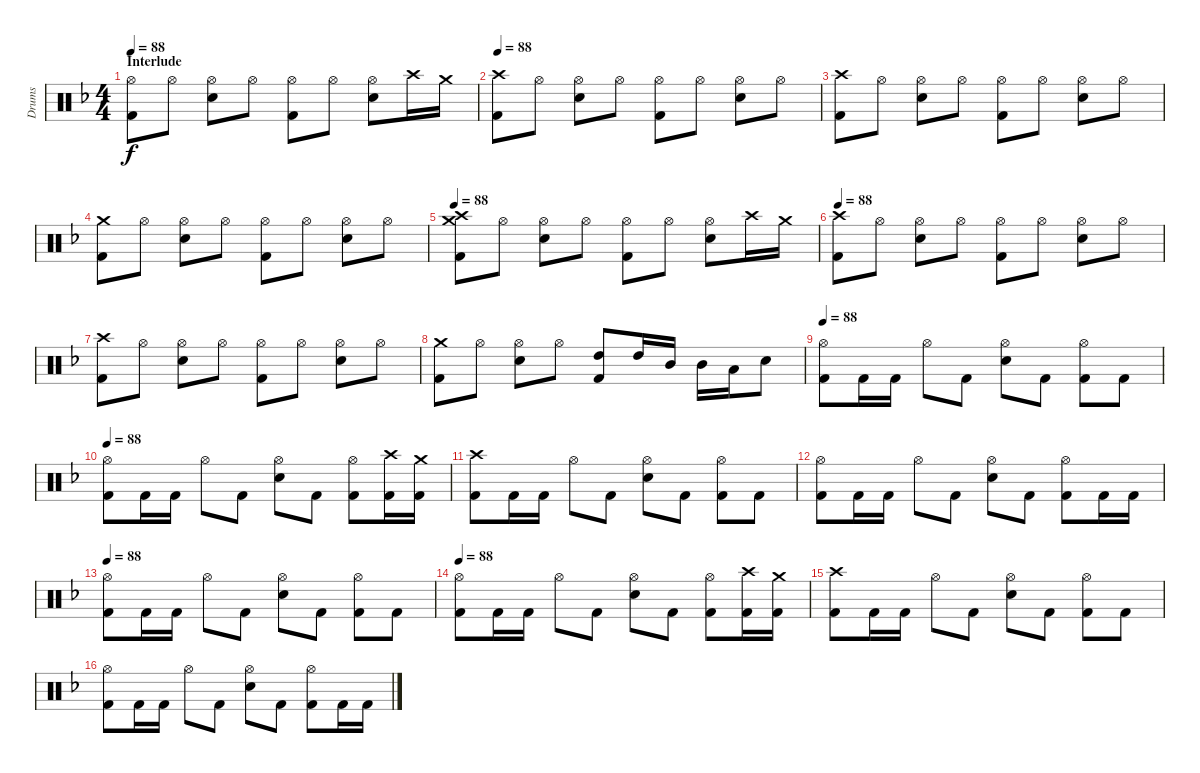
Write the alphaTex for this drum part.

\track ("Drums" "Drums") {instrument percussion}
\staff {score}
\articulation defaults
\ts (4 4)
\section ("" "Interlude")
\tempo 88
\clef neutral
\ks f
("Hi-Hat (open)" "Kick (hit) 2").8{dy f} "Hi-Hat (open)".8 ("Hi-Hat (open)" "Snare (hit) 2").8 "Hi-Hat (open)".8 ("Hi-Hat (open)" "Kick (hit) 2").8 "Hi-Hat (open)".8 ("Hi-Hat (open)" "Snare (hit) 2").8 "Crash high (hit)".16 "Crash medium (hit)".16 |
\tempo 88
("Crash high (hit)" "Kick (hit) 2").8 "Hi-Hat (open)".8 ("Hi-Hat (open)" "Snare (hit) 2").8 "Hi-Hat (open)".8 ("Hi-Hat (open)" "Kick (hit) 2").8 "Hi-Hat (open)".8 ("Hi-Hat (open)" "Snare (hit) 2").8 "Hi-Hat (open)".8 |
("Crash high (hit)" "Kick (hit) 2").8 "Hi-Hat (open)".8 ("Hi-Hat (open)" "Snare (hit) 2").8 "Hi-Hat (open)".8 ("Hi-Hat (open)" "Kick (hit) 2").8 "Hi-Hat (open)".8 ("Hi-Hat (open)" "Snare (hit) 2").8 "Hi-Hat (open)".8 |
("Crash medium (hit)" "Kick (hit) 2").8 "Hi-Hat (open)".8 ("Hi-Hat (open)" "Snare (hit) 2").8 "Hi-Hat (open)".8 ("Hi-Hat (open)" "Kick (hit) 2").8 "Hi-Hat (open)".8 ("Hi-Hat (open)" "Snare (hit) 2").8 "Hi-Hat (open)".8 |
\tempo 88
("Crash high (hit)" "Crash medium (hit)" "Kick (hit) 2").8 "Hi-Hat (open)".8 ("Hi-Hat (open)" "Snare (hit) 2").8 "Hi-Hat (open)".8 ("Hi-Hat (open)" "Kick (hit) 2").8 "Hi-Hat (open)".8 ("Hi-Hat (open)" "Snare (hit) 2").8 "Crash high (hit)".16 "Crash medium (hit)".16 |
\tempo 88
("Crash high (hit)" "Kick (hit) 2").8 "Hi-Hat (open)".8 ("Hi-Hat (open)" "Snare (hit) 2").8 "Hi-Hat (open)".8 ("Hi-Hat (open)" "Kick (hit) 2").8 "Hi-Hat (open)".8 ("Hi-Hat (open)" "Snare (hit) 2").8 "Hi-Hat (open)".8 |
("Crash high (hit)" "Kick (hit) 2").8 "Hi-Hat (open)".8 ("Hi-Hat (open)" "Snare (hit) 2").8 "Hi-Hat (open)".8 ("Hi-Hat (open)" "Kick (hit) 2").8 "Hi-Hat (open)".8 ("Hi-Hat (open)" "Snare (hit) 2").8 "Hi-Hat (open)".8 |
("Crash medium (hit)" "Kick (hit) 2").8 "Hi-Hat (open)".8 ("Hi-Hat (open)" "Snare (hit) 2").8 "Hi-Hat (open)".8 ("High Tom (hit)" "Kick (hit) 2").8 "High Tom (hit)".16 "Mid Tom (hit)".16 "Mid Tom (hit)".16 "Low Tom (hit)".16 "Snare (hit) 2".8 |
\tempo 88
("Hi-Hat (open)" "Kick (hit) 2").8 "Kick (hit) 2".16 "Kick (hit) 2".16 "Hi-Hat (open)".8 "Kick (hit) 2".8 ("Hi-Hat (open)" "Snare (hit) 2").8 "Kick (hit) 2".8 ("Hi-Hat (open)" "Kick (hit) 2").8 "Kick (hit) 2".8 |
\tempo 88
("Hi-Hat (open)" "Kick (hit) 2").8 "Kick (hit) 2".16 "Kick (hit) 2".16 "Hi-Hat (open)".8 "Kick (hit) 2".8 ("Hi-Hat (open)" "Snare (hit) 2").8 "Kick (hit) 2".8 ("Hi-Hat (open)" "Kick (hit) 2").8 ("Crash high (hit)" "Kick (hit) 2").16 ("Crash medium (hit)" "Kick (hit) 2").16 |
("Crash high (hit)" "Kick (hit) 2").8 "Kick (hit) 2".16 "Kick (hit) 2".16 "Hi-Hat (open)".8 "Kick (hit) 2".8 ("Hi-Hat (open)" "Snare (hit) 2").8 "Kick (hit) 2".8 ("Hi-Hat (open)" "Kick (hit) 2").8 "Kick (hit) 2".8 |
("Hi-Hat (open)" "Kick (hit) 2").8 "Kick (hit) 2".16 "Kick (hit) 2".16 "Hi-Hat (open)".8 "Kick (hit) 2".8 ("Hi-Hat (open)" "Snare (hit) 2").8 "Kick (hit) 2".8 ("Hi-Hat (open)" "Kick (hit) 2").8 "Kick (hit) 2".16 "Kick (hit) 2".16 |
\tempo 88
("Hi-Hat (open)" "Kick (hit) 2").8 "Kick (hit) 2".16 "Kick (hit) 2".16 "Hi-Hat (open)".8 "Kick (hit) 2".8 ("Hi-Hat (open)" "Snare (hit) 2").8 "Kick (hit) 2".8 ("Hi-Hat (open)" "Kick (hit) 2").8 "Kick (hit) 2".8 |
\tempo 88
("Hi-Hat (open)" "Kick (hit) 2").8 "Kick (hit) 2".16 "Kick (hit) 2".16 "Hi-Hat (open)".8 "Kick (hit) 2".8 ("Hi-Hat (open)" "Snare (hit) 2").8 "Kick (hit) 2".8 ("Hi-Hat (open)" "Kick (hit) 2").8 ("Crash high (hit)" "Kick (hit) 2").16 ("Crash medium (hit)" "Kick (hit) 2").16 |
("Crash high (hit)" "Kick (hit) 2").8 "Kick (hit) 2".16 "Kick (hit) 2".16 "Hi-Hat (open)".8 "Kick (hit) 2".8 ("Hi-Hat (open)" "Snare (hit) 2").8 "Kick (hit) 2".8 ("Hi-Hat (open)" "Kick (hit) 2").8 "Kick (hit) 2".8 |
("Hi-Hat (open)" "Kick (hit) 2").8 "Kick (hit) 2".16 "Kick (hit) 2".16 "Hi-Hat (open)".8 "Kick (hit) 2".8 ("Hi-Hat (open)" "Snare (hit) 2").8 "Kick (hit) 2".8 ("Hi-Hat (open)" "Kick (hit) 2").8 "Kick (hit) 2".16 "Kick (hit) 2".16
